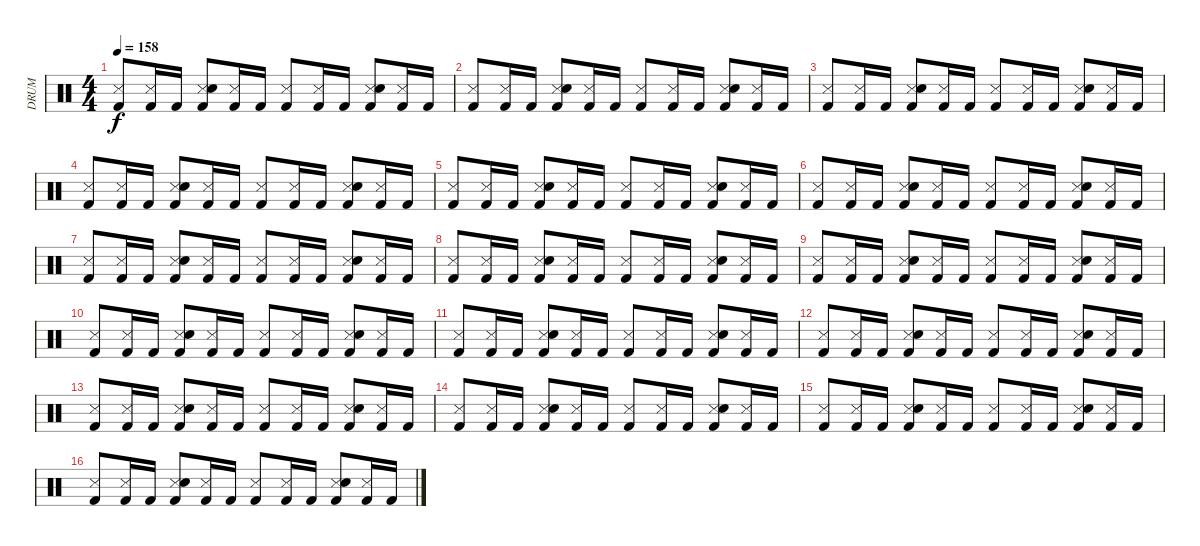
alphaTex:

\track ("DRUM" "DRUM") {instrument percussion}
\staff {score}
\articulation defaults
\ts (4 4)
\tempo 158
\clef neutral
\ks c
("Metronome (hit)" "Kick (hit) 2").8{dy f} ("Metronome (hit)" "Kick (hit) 2").16 "Kick (hit) 2".16 ("Metronome (hit)" "Snare (hit) 2" "Kick (hit) 2").8 ("Metronome (hit)" "Kick (hit) 2").16 "Kick (hit) 2".16 ("Metronome (hit)" "Kick (hit) 2").8 ("Metronome (hit)" "Kick (hit) 2").16 "Kick (hit) 2".16 ("Metronome (hit)" "Snare (hit) 2" "Kick (hit) 2").8 ("Metronome (hit)" "Kick (hit) 2").16 "Kick (hit) 2".16 |
("Metronome (hit)" "Kick (hit) 2").8 ("Metronome (hit)" "Kick (hit) 2").16 "Kick (hit) 2".16 ("Metronome (hit)" "Snare (hit) 2" "Kick (hit) 2").8 ("Metronome (hit)" "Kick (hit) 2").16 "Kick (hit) 2".16 ("Metronome (hit)" "Kick (hit) 2").8 ("Metronome (hit)" "Kick (hit) 2").16 "Kick (hit) 2".16 ("Metronome (hit)" "Snare (hit) 2" "Kick (hit) 2").8 ("Metronome (hit)" "Kick (hit) 2").16 "Kick (hit) 2".16 |
("Metronome (hit)" "Kick (hit) 2").8 ("Metronome (hit)" "Kick (hit) 2").16 "Kick (hit) 2".16 ("Metronome (hit)" "Snare (hit) 2" "Kick (hit) 2").8 ("Metronome (hit)" "Kick (hit) 2").16 "Kick (hit) 2".16 ("Metronome (hit)" "Kick (hit) 2").8 ("Metronome (hit)" "Kick (hit) 2").16 "Kick (hit) 2".16 ("Metronome (hit)" "Snare (hit) 2" "Kick (hit) 2").8 ("Metronome (hit)" "Kick (hit) 2").16 "Kick (hit) 2".16 |
("Metronome (hit)" "Kick (hit) 2").8 ("Metronome (hit)" "Kick (hit) 2").16 "Kick (hit) 2".16 ("Metronome (hit)" "Snare (hit) 2" "Kick (hit) 2").8 ("Metronome (hit)" "Kick (hit) 2").16 "Kick (hit) 2".16 ("Metronome (hit)" "Kick (hit) 2").8 ("Metronome (hit)" "Kick (hit) 2").16 "Kick (hit) 2".16 ("Metronome (hit)" "Snare (hit) 2" "Kick (hit) 2").8 ("Metronome (hit)" "Kick (hit) 2").16 "Kick (hit) 2".16 |
("Metronome (hit)" "Kick (hit) 2").8 ("Metronome (hit)" "Kick (hit) 2").16 "Kick (hit) 2".16 ("Metronome (hit)" "Snare (hit) 2" "Kick (hit) 2").8 ("Metronome (hit)" "Kick (hit) 2").16 "Kick (hit) 2".16 ("Metronome (hit)" "Kick (hit) 2").8 ("Metronome (hit)" "Kick (hit) 2").16 "Kick (hit) 2".16 ("Metronome (hit)" "Snare (hit) 2" "Kick (hit) 2").8 ("Metronome (hit)" "Kick (hit) 2").16 "Kick (hit) 2".16 |
("Metronome (hit)" "Kick (hit) 2").8 ("Metronome (hit)" "Kick (hit) 2").16 "Kick (hit) 2".16 ("Metronome (hit)" "Snare (hit) 2" "Kick (hit) 2").8 ("Metronome (hit)" "Kick (hit) 2").16 "Kick (hit) 2".16 ("Metronome (hit)" "Kick (hit) 2").8 ("Metronome (hit)" "Kick (hit) 2").16 "Kick (hit) 2".16 ("Metronome (hit)" "Snare (hit) 2" "Kick (hit) 2").8 ("Metronome (hit)" "Kick (hit) 2").16 "Kick (hit) 2".16 |
("Metronome (hit)" "Kick (hit) 2").8 ("Metronome (hit)" "Kick (hit) 2").16 "Kick (hit) 2".16 ("Metronome (hit)" "Snare (hit) 2" "Kick (hit) 2").8 ("Metronome (hit)" "Kick (hit) 2").16 "Kick (hit) 2".16 ("Metronome (hit)" "Kick (hit) 2").8 ("Metronome (hit)" "Kick (hit) 2").16 "Kick (hit) 2".16 ("Metronome (hit)" "Snare (hit) 2" "Kick (hit) 2").8 ("Metronome (hit)" "Kick (hit) 2").16 "Kick (hit) 2".16 |
("Metronome (hit)" "Kick (hit) 2").8 ("Metronome (hit)" "Kick (hit) 2").16 "Kick (hit) 2".16 ("Metronome (hit)" "Snare (hit) 2" "Kick (hit) 2").8 ("Metronome (hit)" "Kick (hit) 2").16 "Kick (hit) 2".16 ("Metronome (hit)" "Kick (hit) 2").8 ("Metronome (hit)" "Kick (hit) 2").16 "Kick (hit) 2".16 ("Metronome (hit)" "Snare (hit) 2" "Kick (hit) 2").8 ("Metronome (hit)" "Kick (hit) 2").16 "Kick (hit) 2".16 |
("Metronome (hit)" "Kick (hit) 2").8 ("Metronome (hit)" "Kick (hit) 2").16 "Kick (hit) 2".16 ("Metronome (hit)" "Snare (hit) 2" "Kick (hit) 2").8 ("Metronome (hit)" "Kick (hit) 2").16 "Kick (hit) 2".16 ("Metronome (hit)" "Kick (hit) 2").8 ("Metronome (hit)" "Kick (hit) 2").16 "Kick (hit) 2".16 ("Metronome (hit)" "Snare (hit) 2" "Kick (hit) 2").8 ("Metronome (hit)" "Kick (hit) 2").16 "Kick (hit) 2".16 |
("Metronome (hit)" "Kick (hit) 2").8 ("Metronome (hit)" "Kick (hit) 2").16 "Kick (hit) 2".16 ("Metronome (hit)" "Snare (hit) 2" "Kick (hit) 2").8 ("Metronome (hit)" "Kick (hit) 2").16 "Kick (hit) 2".16 ("Metronome (hit)" "Kick (hit) 2").8 ("Metronome (hit)" "Kick (hit) 2").16 "Kick (hit) 2".16 ("Metronome (hit)" "Snare (hit) 2" "Kick (hit) 2").8 ("Metronome (hit)" "Kick (hit) 2").16 "Kick (hit) 2".16 |
("Metronome (hit)" "Kick (hit) 2").8 ("Metronome (hit)" "Kick (hit) 2").16 "Kick (hit) 2".16 ("Metronome (hit)" "Snare (hit) 2" "Kick (hit) 2").8 ("Metronome (hit)" "Kick (hit) 2").16 "Kick (hit) 2".16 ("Metronome (hit)" "Kick (hit) 2").8 ("Metronome (hit)" "Kick (hit) 2").16 "Kick (hit) 2".16 ("Metronome (hit)" "Snare (hit) 2" "Kick (hit) 2").8 ("Metronome (hit)" "Kick (hit) 2").16 "Kick (hit) 2".16 |
("Metronome (hit)" "Kick (hit) 2").8 ("Metronome (hit)" "Kick (hit) 2").16 "Kick (hit) 2".16 ("Metronome (hit)" "Snare (hit) 2" "Kick (hit) 2").8 ("Metronome (hit)" "Kick (hit) 2").16 "Kick (hit) 2".16 ("Metronome (hit)" "Kick (hit) 2").8 ("Metronome (hit)" "Kick (hit) 2").16 "Kick (hit) 2".16 ("Metronome (hit)" "Snare (hit) 2" "Kick (hit) 2").8 ("Metronome (hit)" "Kick (hit) 2").16 "Kick (hit) 2".16 |
("Metronome (hit)" "Kick (hit) 2").8 ("Metronome (hit)" "Kick (hit) 2").16 "Kick (hit) 2".16 ("Metronome (hit)" "Snare (hit) 2" "Kick (hit) 2").8 ("Metronome (hit)" "Kick (hit) 2").16 "Kick (hit) 2".16 ("Metronome (hit)" "Kick (hit) 2").8 ("Metronome (hit)" "Kick (hit) 2").16 "Kick (hit) 2".16 ("Metronome (hit)" "Snare (hit) 2" "Kick (hit) 2").8 ("Metronome (hit)" "Kick (hit) 2").16 "Kick (hit) 2".16 |
("Metronome (hit)" "Kick (hit) 2").8 ("Metronome (hit)" "Kick (hit) 2").16 "Kick (hit) 2".16 ("Metronome (hit)" "Snare (hit) 2" "Kick (hit) 2").8 ("Metronome (hit)" "Kick (hit) 2").16 "Kick (hit) 2".16 ("Metronome (hit)" "Kick (hit) 2").8 ("Metronome (hit)" "Kick (hit) 2").16 "Kick (hit) 2".16 ("Metronome (hit)" "Snare (hit) 2" "Kick (hit) 2").8 ("Metronome (hit)" "Kick (hit) 2").16 "Kick (hit) 2".16 |
("Metronome (hit)" "Kick (hit) 2").8 ("Metronome (hit)" "Kick (hit) 2").16 "Kick (hit) 2".16 ("Metronome (hit)" "Snare (hit) 2" "Kick (hit) 2").8 ("Metronome (hit)" "Kick (hit) 2").16 "Kick (hit) 2".16 ("Metronome (hit)" "Kick (hit) 2").8 ("Metronome (hit)" "Kick (hit) 2").16 "Kick (hit) 2".16 ("Metronome (hit)" "Snare (hit) 2" "Kick (hit) 2").8 ("Metronome (hit)" "Kick (hit) 2").16 "Kick (hit) 2".16 |
("Metronome (hit)" "Kick (hit) 2").8 ("Metronome (hit)" "Kick (hit) 2").16 "Kick (hit) 2".16 ("Metronome (hit)" "Snare (hit) 2" "Kick (hit) 2").8 ("Metronome (hit)" "Kick (hit) 2").16 "Kick (hit) 2".16 ("Metronome (hit)" "Kick (hit) 2").8 ("Metronome (hit)" "Kick (hit) 2").16 "Kick (hit) 2".16 ("Metronome (hit)" "Snare (hit) 2" "Kick (hit) 2").8 ("Metronome (hit)" "Kick (hit) 2").16 "Kick (hit) 2".16
